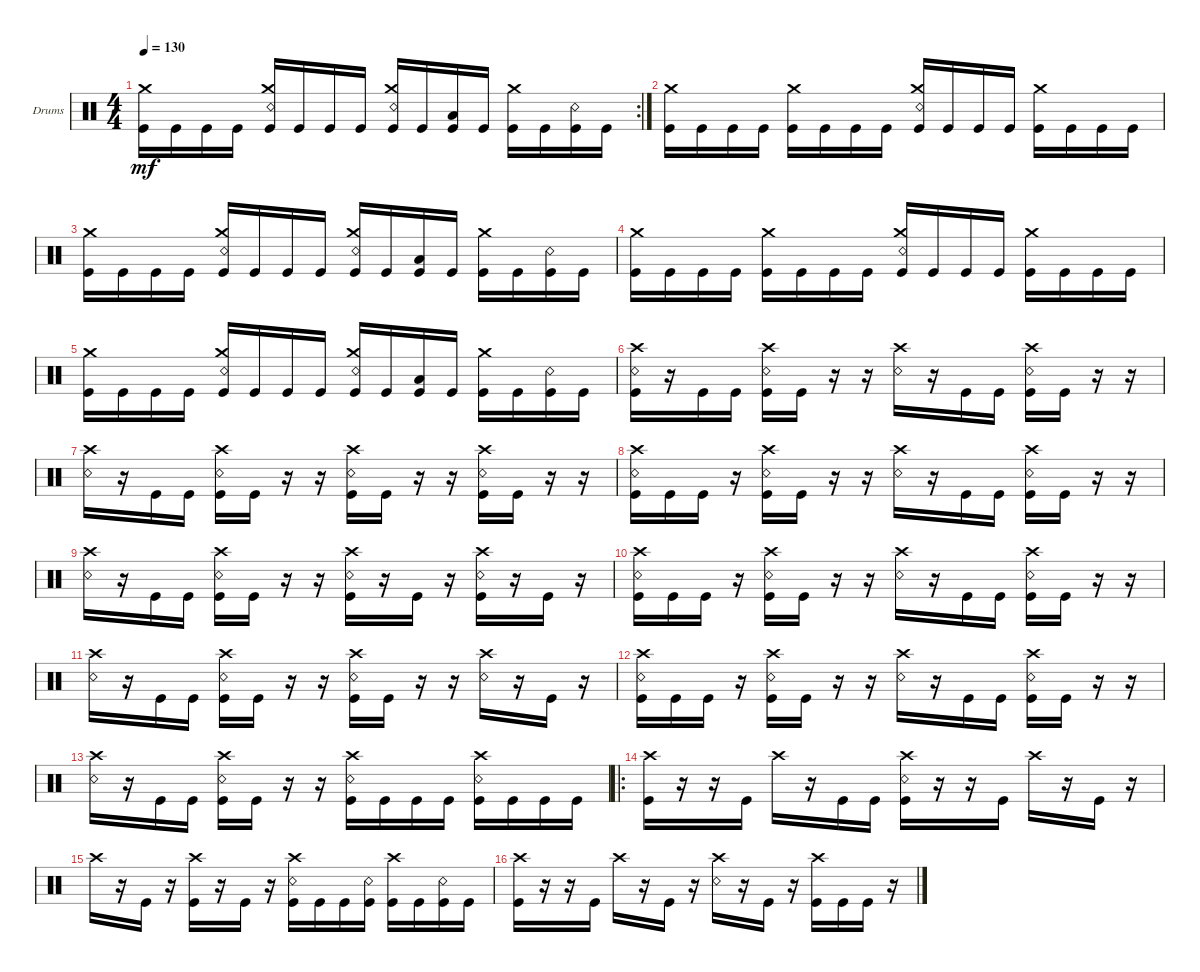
\defaultSystemsLayout 4
\bracketExtendMode groupsimilarinstruments
\firstSystemTrackNameOrientation horizontal
\otherSystemsTrackNameOrientation horizontal
\track ("Drums" "Drums") {instrument percussion}
\staff {score}
\articulation defaults
\rc 2
\ts (4 4)
\tempo 130
\clef neutral
\ks c
("Kick (hit)" "Crash medium (hit)").16{dy mf} "Kick (hit)".16 "Kick (hit)".16 "Kick (hit)".16 ("Kick (hit)" "Crash medium (hit)" "Snare (rim shot)").16 "Kick (hit)".16 "Kick (hit)".16 "Kick (hit)".16 ("Kick (hit)" "Crash medium (hit)" "Snare (rim shot)").16 "Kick (hit)".16 ("Kick (hit)" "Low Tom (hit)").16 "Kick (hit)".16 ("Kick (hit)" "Crash medium (hit)").16 "Kick (hit)".16 ("Kick (hit)" "Snare (rim shot)").16 "Kick (hit)".16 |
("Kick (hit)" "Crash medium (hit)").16 "Kick (hit)".16 "Kick (hit)".16 "Kick (hit)".16 ("Kick (hit)" "Crash medium (hit)").16 "Kick (hit)".16 "Kick (hit)".16 "Kick (hit)".16 ("Kick (hit)" "Crash medium (hit)" "Snare (rim shot)").16 "Kick (hit)".16 "Kick (hit)".16 "Kick (hit)".16 ("Kick (hit)" "Crash medium (hit)").16 "Kick (hit)".16 "Kick (hit)".16 "Kick (hit)".16 |
("Kick (hit)" "Crash medium (hit)").16 "Kick (hit)".16 "Kick (hit)".16 "Kick (hit)".16 ("Kick (hit)" "Crash medium (hit)" "Snare (rim shot)").16 "Kick (hit)".16 "Kick (hit)".16 "Kick (hit)".16 ("Kick (hit)" "Crash medium (hit)" "Snare (rim shot)").16 "Kick (hit)".16 ("Kick (hit)" "Low Tom (hit)").16 "Kick (hit)".16 ("Kick (hit)" "Crash medium (hit)").16 "Kick (hit)".16 ("Kick (hit)" "Snare (rim shot)").16 "Kick (hit)".16 |
("Kick (hit)" "Crash medium (hit)").16 "Kick (hit)".16 "Kick (hit)".16 "Kick (hit)".16 ("Kick (hit)" "Crash medium (hit)").16 "Kick (hit)".16 "Kick (hit)".16 "Kick (hit)".16 ("Kick (hit)" "Crash medium (hit)" "Snare (rim shot)").16 "Kick (hit)".16 "Kick (hit)".16 "Kick (hit)".16 ("Kick (hit)" "Crash medium (hit)").16 "Kick (hit)".16 "Kick (hit)".16 "Kick (hit)".16 |
("Kick (hit)" "Crash medium (hit)").16 "Kick (hit)".16 "Kick (hit)".16 "Kick (hit)".16 ("Kick (hit)" "Crash medium (hit)" "Snare (rim shot)").16 "Kick (hit)".16 "Kick (hit)".16 "Kick (hit)".16 ("Kick (hit)" "Crash medium (hit)" "Snare (rim shot)").16 "Kick (hit)".16 ("Kick (hit)" "Low Tom (hit)").16 "Kick (hit)".16 ("Kick (hit)" "Crash medium (hit)").16 "Kick (hit)".16 ("Kick (hit)" "Snare (rim shot)").16 "Kick (hit)".16 |
("Kick (hit)" "Crash high (hit)" "Snare (rim shot)").16 r.16 "Kick (hit)".16 "Kick (hit)".16 ("Kick (hit)" "Crash high (hit)" "Snare (rim shot)").16 "Kick (hit)".16 r.16 r.16 ("Crash high (hit)" "Snare (rim shot)").16 r.16 "Kick (hit)".16 "Kick (hit)".16 ("Crash high (hit)" "Kick (hit)" "Snare (rim shot)").16 "Kick (hit)".16 r.16 r.16 |
("Snare (rim shot)" "Crash high (hit)").16 r.16 "Kick (hit)".16 "Kick (hit)".16 ("Snare (rim shot)" "Crash high (hit)" "Kick (hit)").16 "Kick (hit)".16 r.16 r.16 ("Snare (rim shot)" "Crash high (hit)" "Kick (hit)").16 "Kick (hit)".16 r.16 r.16 ("Snare (rim shot)" "Crash high (hit)" "Kick (hit)").16 "Kick (hit)".16 r.16 r.16 |
("Kick (hit)" "Crash high (hit)" "Snare (rim shot)").16 "Kick (hit)".16 "Kick (hit)".16 r.16 ("Kick (hit)" "Crash high (hit)" "Snare (rim shot)").16 "Kick (hit)".16 r.16 r.16 ("Crash high (hit)" "Snare (rim shot)").16 r.16 "Kick (hit)".16 "Kick (hit)".16 ("Kick (hit)" "Crash high (hit)" "Snare (rim shot)").16 "Kick (hit)".16 r.16 r.16 |
("Snare (rim shot)" "Crash high (hit)").16 r.16 "Kick (hit)".16 "Kick (hit)".16 ("Snare (rim shot)" "Kick (hit)" "Crash high (hit)").16 "Kick (hit)".16 r.16 r.16 ("Kick (hit)" "Snare (rim shot)" "Crash high (hit)").16 r.16 "Kick (hit)".16 r.16 ("Kick (hit)" "Snare (rim shot)" "Crash high (hit)").16 r.16 "Kick (hit)".16 r.16 |
("Kick (hit)" "Crash high (hit)" "Snare (rim shot)").16 "Kick (hit)".16 "Kick (hit)".16 r.16 ("Kick (hit)" "Crash high (hit)" "Snare (rim shot)").16 "Kick (hit)".16 r.16 r.16 ("Crash high (hit)" "Snare (rim shot)").16 r.16 "Kick (hit)".16 "Kick (hit)".16 ("Kick (hit)" "Crash high (hit)" "Snare (rim shot)").16 "Kick (hit)".16 r.16 r.16 |
("Snare (rim shot)" "Crash high (hit)").16 r.16 "Kick (hit)".16 "Kick (hit)".16 ("Snare (rim shot)" "Crash high (hit)" "Kick (hit)").16 "Kick (hit)".16 r.16 r.16 ("Snare (rim shot)" "Crash high (hit)" "Kick (hit)").16 "Kick (hit)".16 r.16 r.16 ("Snare (rim shot)" "Crash high (hit)").16 r.16 "Kick (hit)".16 r.16 |
("Crash high (hit)" "Snare (rim shot)" "Kick (hit)").16 "Kick (hit)".16 "Kick (hit)".16 r.16 ("Kick (hit)" "Crash high (hit)" "Snare (rim shot)").16 "Kick (hit)".16 r.16 r.16 ("Crash high (hit)" "Snare (rim shot)").16 r.16 "Kick (hit)".16 "Kick (hit)".16 ("Crash high (hit)" "Snare (rim shot)" "Kick (hit)").16 "Kick (hit)".16 r.16 r.16 |
("Crash high (hit)" "Snare (rim shot)").16 r.16 "Kick (hit)".16 "Kick (hit)".16 ("Kick (hit)" "Crash high (hit)" "Snare (rim shot)").16 "Kick (hit)".16 r.16 r.16 ("Crash high (hit)" "Snare (rim shot)" "Kick (hit)").16 "Kick (hit)".16 "Kick (hit)".16 "Kick (hit)".16 ("Crash high (hit)" "Snare (rim shot)" "Kick (hit)").16 "Kick (hit)".16 "Kick (hit)".16 "Kick (hit)".16 |
\ro
("Kick (hit)" "Crash high (hit)").16 r.16 r.16 "Kick (hit)".16 "Crash high (hit)".16 r.16 "Kick (hit)".16 "Kick (hit)".16 ("Kick (hit)" "Crash high (hit)" "Snare (rim shot)").16 r.16 r.16 "Kick (hit)".16 "Crash high (hit)".16 r.16 "Kick (hit)".16 r.16 |
"Crash high (hit)".16 r.16 "Kick (hit)".16 r.16 ("Crash high (hit)" "Kick (hit)").16 r.16 "Kick (hit)".16 r.16 ("Crash high (hit)" "Kick (hit)" "Snare (rim shot)").16 "Kick (hit)".16 "Kick (hit)".16 ("Kick (hit)" "Snare (rim shot)").16 ("Crash high (hit)" "Kick (hit)").16 "Kick (hit)".16 ("Kick (hit)" "Snare (rim shot)").16 "Kick (hit)".16 |
("Kick (hit)" "Crash high (hit)").16 r.16 r.16 "Kick (hit)".16 "Crash high (hit)".16 r.16 "Kick (hit)".16 r.16 ("Crash high (hit)" "Snare (rim shot)").16 r.16 "Kick (hit)".16 r.16 ("Crash high (hit)" "Kick (hit)").16 "Kick (hit)".16 "Kick (hit)".16 r.16
